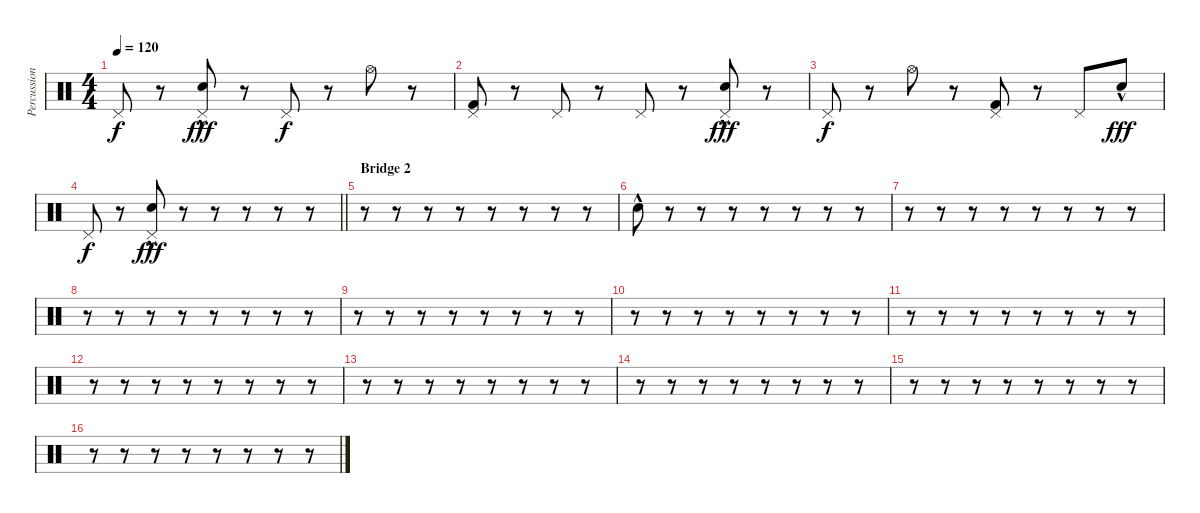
\track ("Percussion" "Percussion") {instrument percussion}
\staff {score}
\articulation defaults
\ts (4 4)
\tempo 120
\clef neutral
\ks c "Pedal Hi-Hat (hit)".8{dy f}
r.8 ("Snare (hit) 2"{hac} "Pedal Hi-Hat (hit)").8{dy fff} r.8 "Pedal Hi-Hat (hit)".8{dy f} r.8 "Hi-Hat (open)".8 r.8 |
("Kick (hit) 2" "Pedal Hi-Hat (hit)").8 r.8 "Pedal Hi-Hat (hit)".8 r.8 "Pedal Hi-Hat (hit)".8 r.8 ("Snare (hit) 2"{hac} "Pedal Hi-Hat (hit)").8{dy fff} r.8 |
"Pedal Hi-Hat (hit)".8{dy f} r.8 "Hi-Hat (open)".8 r.8 ("Kick (hit) 2" "Pedal Hi-Hat (hit)").8 r.8 "Pedal Hi-Hat (hit)".8 "Snare (hit) 2"{hac}.8{dy fff} |
\barLineRight lightlight "Pedal Hi-Hat (hit)".8{dy f}
r.8 ("Snare (hit) 2"{hac} "Pedal Hi-Hat (hit)").8{dy fff} r.8 r.8 r.8 r.8 r.8 |
\section ("" "Bridge 2")
r.8 r.8 r.8 r.8 r.8 r.8 r.8 r.8 |
"Snare (hit) 2"{hac}.8 r.8 r.8 r.8 r.8 r.8 r.8 r.8 |
r.8 r.8 r.8 r.8 r.8 r.8 r.8 r.8 |
r.8 r.8 r.8 r.8 r.8 r.8 r.8 r.8 |
r.8 r.8 r.8 r.8 r.8 r.8 r.8 r.8 |
r.8 r.8 r.8 r.8 r.8 r.8 r.8 r.8 |
r.8 r.8 r.8 r.8 r.8 r.8 r.8 r.8 |
r.8 r.8 r.8 r.8 r.8 r.8 r.8 r.8 |
r.8 r.8 r.8 r.8 r.8 r.8 r.8 r.8 |
r.8 r.8 r.8 r.8 r.8 r.8 r.8 r.8 |
r.8 r.8 r.8 r.8 r.8 r.8 r.8 r.8 |
r.8 r.8 r.8 r.8 r.8 r.8 r.8 r.8
